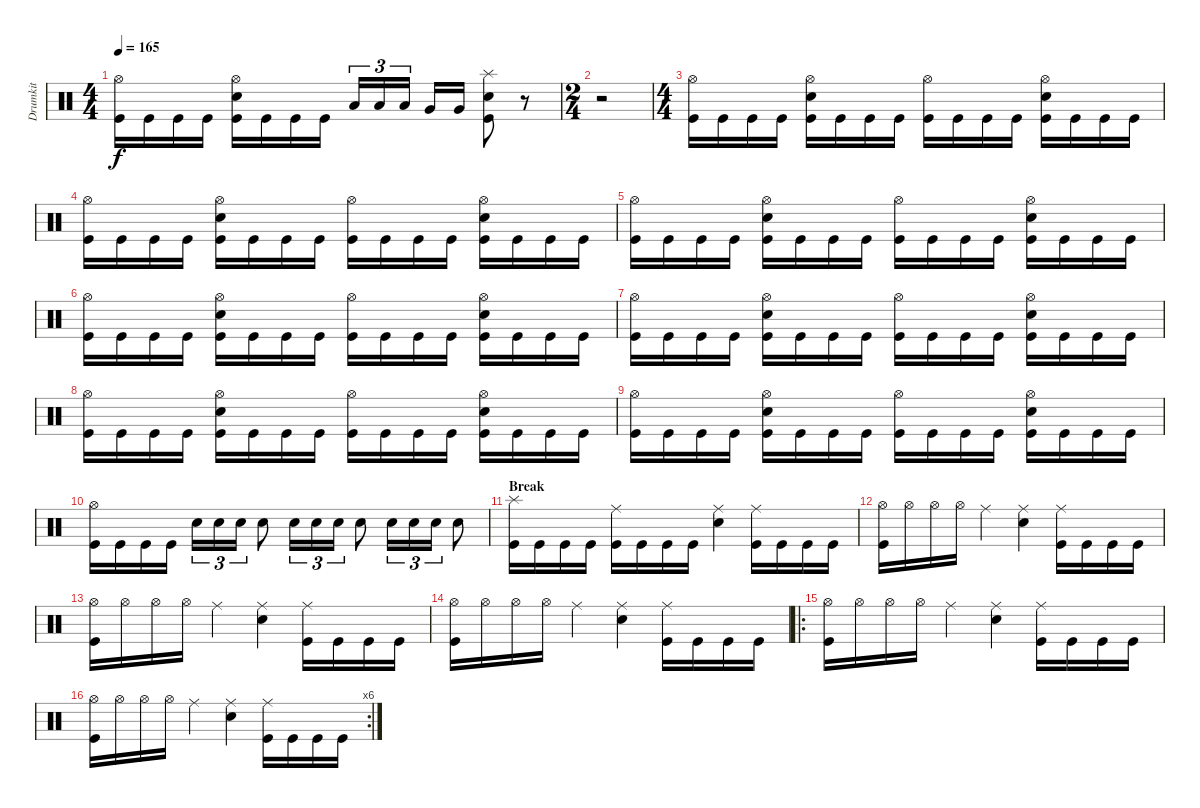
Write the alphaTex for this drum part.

\track ("Drumkit" "Drumkit") {instrument percussion}
\staff {score}
\articulation defaults
\ts (4 4)
\tempo 165
\clef neutral
\ks c
("Hi-Hat (open)" "Kick (hit)").16{dy f} "Kick (hit)".16 "Kick (hit)".16 "Kick (hit)".16 ("Hi-Hat (open)" "Snare (hit) 2" "Kick (hit)").16 "Kick (hit)".16 "Kick (hit)".16 "Kick (hit)".16 "Low Tom (hit)".16{tu (3 2)} "Low Tom (hit)".16{tu (3 2)} "Low Tom (hit)".16{tu (3 2)} "Very Low Tom (hit)".16 "Very Low Tom (hit)".16 ("Splash (hit)" "Snare (hit) 2" "Kick (hit)").8 r.8 |
\ts (2 4)
r.2 |
\ts (4 4)
("Hi-Hat (open)" "Kick (hit)").16 "Kick (hit)".16 "Kick (hit)".16 "Kick (hit)".16 ("Hi-Hat (open)" "Snare (hit) 2" "Kick (hit)").16 "Kick (hit)".16 "Kick (hit)".16 "Kick (hit)".16 ("Hi-Hat (open)" "Kick (hit)").16 "Kick (hit)".16 "Kick (hit)".16 "Kick (hit)".16 ("Hi-Hat (open)" "Snare (hit) 2" "Kick (hit)").16 "Kick (hit)".16 "Kick (hit)".16 "Kick (hit)".16 |
("Hi-Hat (open)" "Kick (hit)").16 "Kick (hit)".16 "Kick (hit)".16 "Kick (hit)".16 ("Hi-Hat (open)" "Snare (hit) 2" "Kick (hit)").16 "Kick (hit)".16 "Kick (hit)".16 "Kick (hit)".16 ("Hi-Hat (open)" "Kick (hit)").16 "Kick (hit)".16 "Kick (hit)".16 "Kick (hit)".16 ("Hi-Hat (open)" "Snare (hit) 2" "Kick (hit)").16 "Kick (hit)".16 "Kick (hit)".16 "Kick (hit)".16 |
("Hi-Hat (open)" "Kick (hit)").16 "Kick (hit)".16 "Kick (hit)".16 "Kick (hit)".16 ("Hi-Hat (open)" "Snare (hit) 2" "Kick (hit)").16 "Kick (hit)".16 "Kick (hit)".16 "Kick (hit)".16 ("Hi-Hat (open)" "Kick (hit)").16 "Kick (hit)".16 "Kick (hit)".16 "Kick (hit)".16 ("Hi-Hat (open)" "Snare (hit) 2" "Kick (hit)").16 "Kick (hit)".16 "Kick (hit)".16 "Kick (hit)".16 |
("Hi-Hat (open)" "Kick (hit)").16 "Kick (hit)".16 "Kick (hit)".16 "Kick (hit)".16 ("Hi-Hat (open)" "Snare (hit) 2" "Kick (hit)").16 "Kick (hit)".16 "Kick (hit)".16 "Kick (hit)".16 ("Hi-Hat (open)" "Kick (hit)").16 "Kick (hit)".16 "Kick (hit)".16 "Kick (hit)".16 ("Hi-Hat (open)" "Snare (hit) 2" "Kick (hit)").16 "Kick (hit)".16 "Kick (hit)".16 "Kick (hit)".16 |
("Hi-Hat (open)" "Kick (hit)").16 "Kick (hit)".16 "Kick (hit)".16 "Kick (hit)".16 ("Hi-Hat (open)" "Snare (hit) 2" "Kick (hit)").16 "Kick (hit)".16 "Kick (hit)".16 "Kick (hit)".16 ("Hi-Hat (open)" "Kick (hit)").16 "Kick (hit)".16 "Kick (hit)".16 "Kick (hit)".16 ("Hi-Hat (open)" "Snare (hit) 2" "Kick (hit)").16 "Kick (hit)".16 "Kick (hit)".16 "Kick (hit)".16 |
("Hi-Hat (open)" "Kick (hit)").16 "Kick (hit)".16 "Kick (hit)".16 "Kick (hit)".16 ("Hi-Hat (open)" "Snare (hit) 2" "Kick (hit)").16 "Kick (hit)".16 "Kick (hit)".16 "Kick (hit)".16 ("Hi-Hat (open)" "Kick (hit)").16 "Kick (hit)".16 "Kick (hit)".16 "Kick (hit)".16 ("Hi-Hat (open)" "Snare (hit) 2" "Kick (hit)").16 "Kick (hit)".16 "Kick (hit)".16 "Kick (hit)".16 |
("Hi-Hat (open)" "Kick (hit)").16 "Kick (hit)".16 "Kick (hit)".16 "Kick (hit)".16 ("Hi-Hat (open)" "Snare (hit) 2" "Kick (hit)").16 "Kick (hit)".16 "Kick (hit)".16 "Kick (hit)".16 ("Hi-Hat (open)" "Kick (hit)").16 "Kick (hit)".16 "Kick (hit)".16 "Kick (hit)".16 ("Hi-Hat (open)" "Snare (hit) 2" "Kick (hit)").16 "Kick (hit)".16 "Kick (hit)".16 "Kick (hit)".16 |
("Hi-Hat (open)" "Kick (hit)").16 "Kick (hit)".16 "Kick (hit)".16 "Kick (hit)".16 "Snare (hit) 2".16{tu (3 2)} "Snare (hit) 2".16{tu (3 2)} "Snare (hit) 2".16{tu (3 2)} "Snare (hit) 2".8 "Snare (hit) 2".16{tu (3 2)} "Snare (hit) 2".16{tu (3 2)} "Snare (hit) 2".16{tu (3 2)} "Snare (hit) 2".8 "Snare (hit) 2".16{tu (3 2)} "Snare (hit) 2".16{tu (3 2)} "Snare (hit) 2".16{tu (3 2)} "Snare (hit) 2".8 |
\section ("" "Break")
("Splash (hit)" "Kick (hit)").16 "Kick (hit)".16 "Kick (hit)".16 "Kick (hit)".16 ("Ride (middle)" "Kick (hit)").16 "Kick (hit)".16 "Kick (hit)".16 "Kick (hit)".16 ("Ride (middle)" "Snare (hit) 2").4 ("Ride (middle)" "Kick (hit)").16 "Kick (hit)".16 "Kick (hit)".16 "Kick (hit)".16 |
("Hi-Hat (open)" "Kick (hit)").16 "Hi-Hat (open)".16 "Hi-Hat (open)".16 "Hi-Hat (open)".16 "Ride (middle)".4 ("Ride (middle)" "Snare (hit) 2").4 ("Ride (middle)" "Kick (hit)").16 "Kick (hit)".16 "Kick (hit)".16 "Kick (hit)".16 |
("Hi-Hat (open)" "Kick (hit)").16 "Hi-Hat (open)".16 "Hi-Hat (open)".16 "Hi-Hat (open)".16 "Ride (middle)".4 ("Ride (middle)" "Snare (hit) 2").4 ("Ride (middle)" "Kick (hit)").16 "Kick (hit)".16 "Kick (hit)".16 "Kick (hit)".16 |
("Hi-Hat (open)" "Kick (hit)").16 "Hi-Hat (open)".16 "Hi-Hat (open)".16 "Hi-Hat (open)".16 "Ride (middle)".4 ("Ride (middle)" "Snare (hit) 2").4 ("Ride (middle)" "Kick (hit)").16 "Kick (hit)".16 "Kick (hit)".16 "Kick (hit)".16 |
\ro
("Hi-Hat (open)" "Kick (hit)").16 "Hi-Hat (open)".16 "Hi-Hat (open)".16 "Hi-Hat (open)".16 "Ride (middle)".4 ("Ride (middle)" "Snare (hit) 2").4 ("Ride (middle)" "Kick (hit)").16 "Kick (hit)".16 "Kick (hit)".16 "Kick (hit)".16 |
\rc 6
("Hi-Hat (open)" "Kick (hit)").16 "Hi-Hat (open)".16 "Hi-Hat (open)".16 "Hi-Hat (open)".16 "Ride (middle)".4 ("Ride (middle)" "Snare (hit) 2").4 ("Ride (middle)" "Kick (hit)").16 "Kick (hit)".16 "Kick (hit)".16 "Kick (hit)".16
